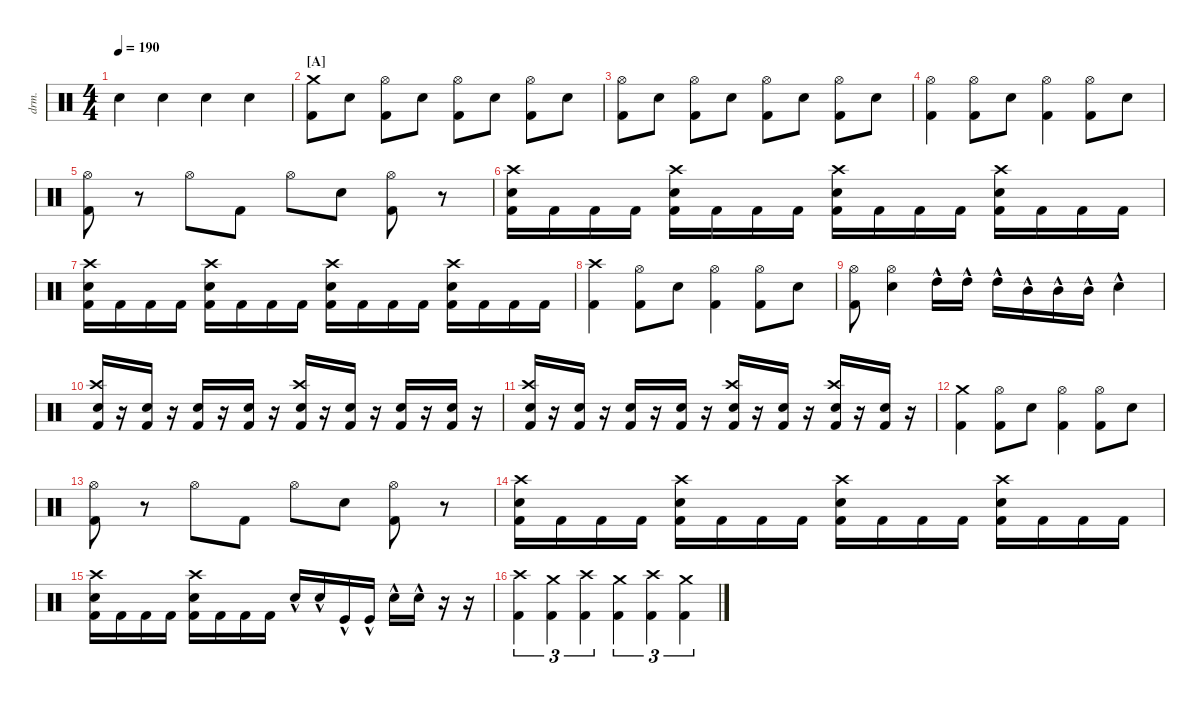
\defaultSystemsLayout 4
\hideDynamics
\bracketExtendMode nobrackets
\otherSystemsTrackNameOrientation horizontal
\track ("Drumkit" "drm.") {instrument percussion}
\staff {score}
\articulation defaults
\ts (4 4)
\tempo 190
\clef neutral
\ks c "Snare (hit) 2".4{dy mf beam Down} "Snare (hit) 2".4{beam Down} "Snare (hit) 2".4{beam Down} "Snare (hit) 2".4{beam Down}
|
\section ("A" "")
("Kick (hit) 2" "Crash medium (hit)").8{beam Down} "Snare (hit) 2".8{beam Down} ("Kick (hit) 2" "Hi-Hat (open)").8{beam Down} "Snare (hit) 2".8{beam Down} ("Kick (hit) 2" "Hi-Hat (open)").8{beam Down} "Snare (hit) 2".8{beam Down} ("Kick (hit) 2" "Hi-Hat (open)").8{beam Down} "Snare (hit) 2".8{beam Down} |
("Kick (hit) 2" "Hi-Hat (open)").8{beam Down} "Snare (hit) 2".8{beam Down} ("Kick (hit) 2" "Hi-Hat (open)").8{beam Down} "Snare (hit) 2".8{beam Down} ("Kick (hit) 2" "Hi-Hat (open)").8{beam Down} "Snare (hit) 2".8{beam Down} ("Kick (hit) 2" "Hi-Hat (open)").8{beam Down} "Snare (hit) 2".8{beam Down} |
("Kick (hit) 2" "Hi-Hat (open)").4{beam Down} ("Kick (hit) 2" "Hi-Hat (open)").8{beam Down} "Snare (hit) 2".8{beam Down} ("Kick (hit) 2" "Hi-Hat (open)").4{beam Down} ("Kick (hit) 2" "Hi-Hat (open)").8{beam Down} "Snare (hit) 2".8{beam Down} |
("Kick (hit) 2" "Hi-Hat (open)").8{beam Down} r.8{beam Down} "Hi-Hat (open)".8{beam Down} "Kick (hit) 2".8{beam Down} "Hi-Hat (open)".8{beam Down} "Snare (hit) 2".8{beam Down} ("Kick (hit) 2" "Hi-Hat (open)").8{beam Down} r.8{beam Down} |
("Kick (hit) 2" "Snare (hit) 2" "Crash high (hit)").16{beam Down} "Kick (hit) 2".16{beam Down} "Kick (hit) 2".16{beam Down} "Kick (hit) 2".16{beam Down} ("Kick (hit) 2" "Snare (hit) 2" "Crash high (hit)").16{beam Down} "Kick (hit) 2".16{beam Down} "Kick (hit) 2".16{beam Down} "Kick (hit) 2".16{beam Down} ("Kick (hit) 2" "Snare (hit) 2" "Crash high (hit)").16{beam Down} "Kick (hit) 2".16{beam Down} "Kick (hit) 2".16{beam Down} "Kick (hit) 2".16{beam Down} ("Kick (hit) 2" "Snare (hit) 2" "Crash high (hit)").16{beam Down} "Kick (hit) 2".16{beam Down} "Kick (hit) 2".16{beam Down} "Kick (hit) 2".16{beam Down} |
("Kick (hit) 2" "Snare (hit) 2" "Crash high (hit)").16{beam Down} "Kick (hit) 2".16{beam Down} "Kick (hit) 2".16{beam Down} "Kick (hit) 2".16{beam Down} ("Kick (hit) 2" "Snare (hit) 2" "Crash high (hit)").16{beam Down} "Kick (hit) 2".16{beam Down} "Kick (hit) 2".16{beam Down} "Kick (hit) 2".16{beam Down} ("Kick (hit) 2" "Snare (hit) 2" "Crash high (hit)").16{beam Down} "Kick (hit) 2".16{beam Down} "Kick (hit) 2".16{beam Down} "Kick (hit) 2".16{beam Down} ("Kick (hit) 2" "Snare (hit) 2" "Crash high (hit)").16{beam Down} "Kick (hit) 2".16{beam Down} "Kick (hit) 2".16{beam Down} "Kick (hit) 2".16{beam Down} |
("Kick (hit) 2" "Crash high (hit)").4{beam Down} ("Kick (hit) 2" "Hi-Hat (open)").8{beam Down} "Snare (hit) 2".8{beam Down} ("Kick (hit) 2" "Hi-Hat (open)").4{beam Down} ("Kick (hit) 2" "Hi-Hat (open)").8{beam Down} "Snare (hit) 2".8{beam Down} |
("Kick (hit) 2" "Hi-Hat (open)").8{beam Down} ("Snare (hit) 2" "Hi-Hat (open)").4{beam Down} "High Tom (hit)"{hac}.16{beam Down} "High Tom (hit)"{hac}.16{beam Down} "High Tom (hit)"{hac}.16{beam Down} "Mid Tom (hit)"{hac}.16{beam Down} "Mid Tom (hit)"{hac}.16{beam Down} "Mid Tom (hit)"{hac}.16{beam Down} "Snare (hit) 2"{hac}.4{beam Down} |
("Kick (hit) 2" "Snare (hit) 2" "Crash high (hit)").16{beam Up} r.16{beam Up} ("Kick (hit) 2" "Snare (hit) 2").16{beam Up} r.16{beam Up} ("Kick (hit) 2" "Snare (hit) 2").16{beam Up} r.16{beam Up} ("Kick (hit) 2" "Snare (hit) 2").16{beam Up} r.16{beam Up} ("Kick (hit) 2" "Snare (hit) 2" "Crash high (hit)").16{beam Up} r.16{beam Up} ("Kick (hit) 2" "Snare (hit) 2").16{beam Up} r.16{beam Up} ("Kick (hit) 2" "Snare (hit) 2").16{beam Up} r.16{beam Up} ("Kick (hit) 2" "Snare (hit) 2").16{beam Up} r.16{beam Up} |
("Kick (hit) 2" "Snare (hit) 2" "Crash high (hit)").16{beam Up} r.16{beam Up} ("Kick (hit) 2" "Snare (hit) 2").16{beam Up} r.16{beam Up} ("Kick (hit) 2" "Snare (hit) 2").16{beam Up} r.16{beam Up} ("Kick (hit) 2" "Snare (hit) 2").16{beam Up} r.16{beam Up} ("Kick (hit) 2" "Snare (hit) 2" "Crash high (hit)").16{beam Up} r.16{beam Up} ("Kick (hit) 2" "Snare (hit) 2").16{beam Up} r.16{beam Up} ("Kick (hit) 2" "Snare (hit) 2" "Crash high (hit)").16{beam Up} r.16{beam Up} ("Kick (hit) 2" "Snare (hit) 2").16{beam Up} r.16{beam Up} |
("Kick (hit) 2" "Crash medium (hit)").4{beam Down} ("Kick (hit) 2" "Hi-Hat (open)").8{beam Down} "Snare (hit) 2".8{beam Down} ("Kick (hit) 2" "Hi-Hat (open)").4{beam Down} ("Kick (hit) 2" "Hi-Hat (open)").8{beam Down} "Snare (hit) 2".8{beam Down} |
("Kick (hit) 2" "Hi-Hat (open)").8{beam Down} r.8{beam Down} "Hi-Hat (open)".8{beam Down} "Kick (hit) 2".8{beam Down} "Hi-Hat (open)".8{beam Down} "Snare (hit) 2".8{beam Down} ("Kick (hit) 2" "Hi-Hat (open)").8{beam Down} r.8{beam Down} |
("Kick (hit) 2" "Snare (hit) 2" "Crash high (hit)").16{beam Down} "Kick (hit) 2".16{beam Down} "Kick (hit) 2".16{beam Down} "Kick (hit) 2".16{beam Down} ("Kick (hit) 2" "Snare (hit) 2" "Crash high (hit)").16{beam Down} "Kick (hit) 2".16{beam Down} "Kick (hit) 2".16{beam Down} "Kick (hit) 2".16{beam Down} ("Kick (hit) 2" "Snare (hit) 2" "Crash high (hit)").16{beam Down} "Kick (hit) 2".16{beam Down} "Kick (hit) 2".16{beam Down} "Kick (hit) 2".16{beam Down} ("Kick (hit) 2" "Snare (hit) 2" "Crash high (hit)").16{beam Down} "Kick (hit) 2".16{beam Down} "Kick (hit) 2".16{beam Down} "Kick (hit) 2".16{beam Down} |
("Kick (hit) 2" "Snare (hit) 2" "Crash high (hit)").16{beam Down} "Kick (hit) 2".16{beam Down} "Kick (hit) 2".16{beam Down} "Kick (hit) 2".16{beam Down} ("Kick (hit) 2" "Snare (hit) 2" "Crash high (hit)").16{beam Down} "Kick (hit) 2".16{beam Down} "Kick (hit) 2".16{beam Down} "Kick (hit) 2".16{beam Down} "Snare (hit) 2"{hac}.16{beam Up} "Snare (hit) 2"{hac}.16{beam Up} "Kick (hit)"{hac}.16{beam Up} "Kick (hit)"{hac}.16{beam Up} "Snare (hit) 2"{hac}.16{beam Down} "Snare (hit) 2"{hac}.16{beam Down} r.16{beam Down} r.16{beam Down} |
("Kick (hit) 2" "Crash high (hit)").4{tu (3 2) beam Down} ("Kick (hit) 2" "Crash medium (hit)").4{tu (3 2) beam Down} ("Kick (hit) 2" "Crash high (hit)").4{tu (3 2) beam Down} ("Kick (hit) 2" "Crash medium (hit)").4{tu (3 2) beam Down} ("Kick (hit) 2" "Crash high (hit)").4{tu (3 2) beam Down} ("Kick (hit) 2" "Crash medium (hit)").4{tu (3 2) beam Down}
